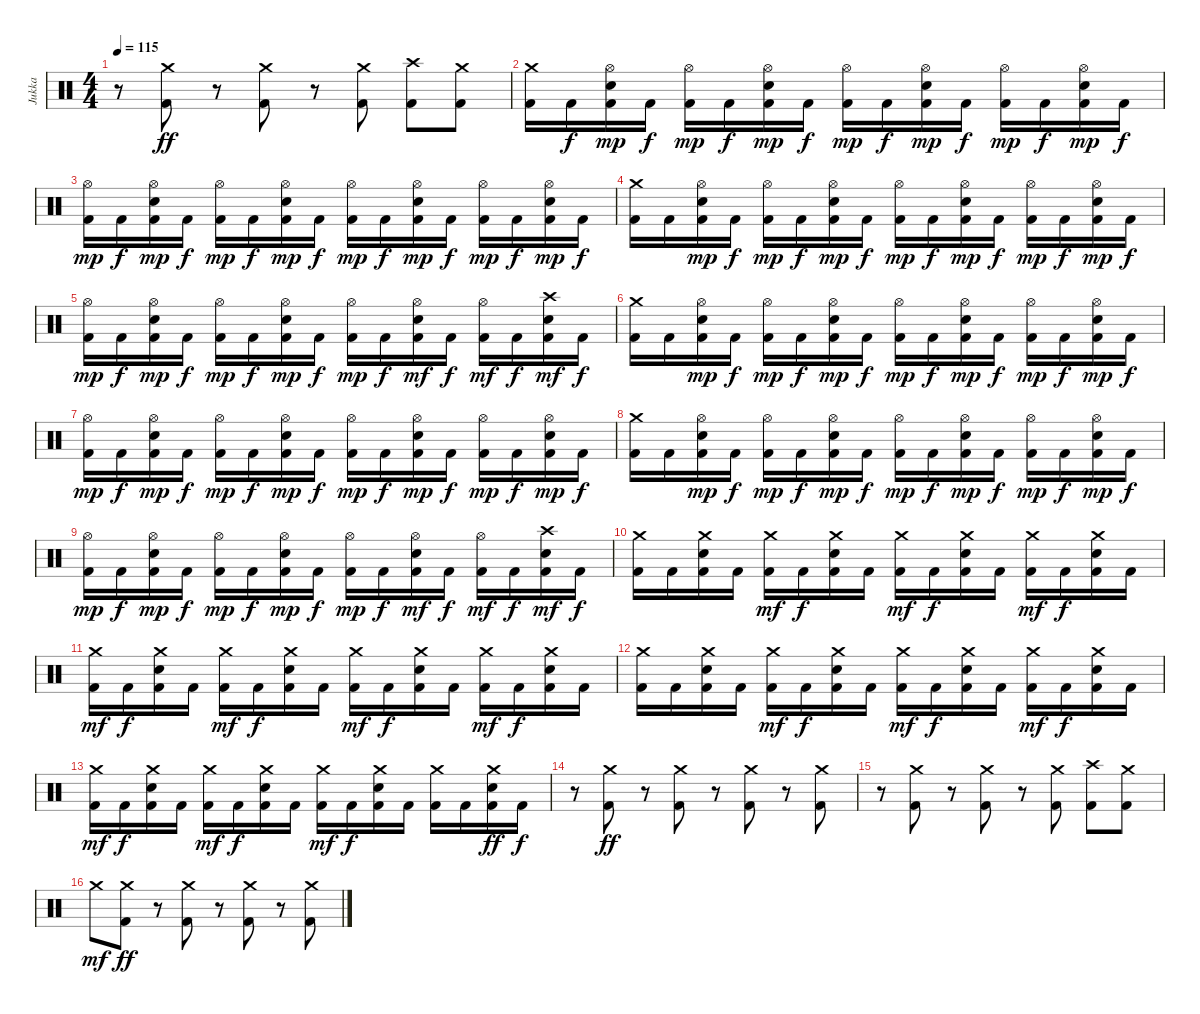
\track ("Jukka" "Jukka") {instrument percussion}
\staff {score}
\articulation defaults
\ts (4 4)
\tempo 115
\clef neutral
\ks c
r.8{dy ff} ("Crash medium (hit)" "Kick (hit) 2").8 r.8 ("Crash medium (hit)" "Kick (hit) 2").8 r.8 ("Crash medium (hit)" "Kick (hit) 2").8 ("Crash high (hit)" "Kick (hit) 2").8 ("Crash medium (hit)" "Kick (hit) 2").8 |
("Crash medium (hit)" "Kick (hit) 2").16 "Kick (hit) 2".16{dy f} ("Hi-Hat (open)" "Snare (hit) 2" "Kick (hit) 2").16{dy mp} "Kick (hit) 2".16{dy f} ("Hi-Hat (open)" "Kick (hit) 2").16{dy mp} "Kick (hit) 2".16{dy f} ("Hi-Hat (open)" "Snare (hit) 2" "Kick (hit) 2").16{dy mp} "Kick (hit) 2".16{dy f} ("Hi-Hat (open)" "Kick (hit) 2").16{dy mp} "Kick (hit) 2".16{dy f} ("Hi-Hat (open)" "Snare (hit) 2" "Kick (hit) 2").16{dy mp} "Kick (hit) 2".16{dy f} ("Hi-Hat (open)" "Kick (hit) 2").16{dy mp} "Kick (hit) 2".16{dy f} ("Hi-Hat (open)" "Snare (hit) 2" "Kick (hit) 2").16{dy mp} "Kick (hit) 2".16{dy f} |
("Hi-Hat (open)" "Kick (hit) 2").16{dy mp} "Kick (hit) 2".16{dy f} ("Hi-Hat (open)" "Snare (hit) 2" "Kick (hit) 2").16{dy mp} "Kick (hit) 2".16{dy f} ("Hi-Hat (open)" "Kick (hit) 2").16{dy mp} "Kick (hit) 2".16{dy f} ("Hi-Hat (open)" "Snare (hit) 2" "Kick (hit) 2").16{dy mp} "Kick (hit) 2".16{dy f} ("Hi-Hat (open)" "Kick (hit) 2").16{dy mp} "Kick (hit) 2".16{dy f} ("Hi-Hat (open)" "Snare (hit) 2" "Kick (hit) 2").16{dy mp} "Kick (hit) 2".16{dy f} ("Hi-Hat (open)" "Kick (hit) 2").16{dy mp} "Kick (hit) 2".16{dy f} ("Hi-Hat (open)" "Snare (hit) 2" "Kick (hit) 2").16{dy mp} "Kick (hit) 2".16{dy f} |
("Crash medium (hit)" "Kick (hit) 2").16 "Kick (hit) 2".16 ("Hi-Hat (open)" "Snare (hit) 2" "Kick (hit) 2").16{dy mp} "Kick (hit) 2".16{dy f} ("Hi-Hat (open)" "Kick (hit) 2").16{dy mp} "Kick (hit) 2".16{dy f} ("Hi-Hat (open)" "Snare (hit) 2" "Kick (hit) 2").16{dy mp} "Kick (hit) 2".16{dy f} ("Hi-Hat (open)" "Kick (hit) 2").16{dy mp} "Kick (hit) 2".16{dy f} ("Hi-Hat (open)" "Snare (hit) 2" "Kick (hit) 2").16{dy mp} "Kick (hit) 2".16{dy f} ("Hi-Hat (open)" "Kick (hit) 2").16{dy mp} "Kick (hit) 2".16{dy f} ("Hi-Hat (open)" "Snare (hit) 2" "Kick (hit) 2").16{dy mp} "Kick (hit) 2".16{dy f} |
("Hi-Hat (open)" "Kick (hit) 2").16{dy mp} "Kick (hit) 2".16{dy f} ("Hi-Hat (open)" "Snare (hit) 2" "Kick (hit) 2").16{dy mp} "Kick (hit) 2".16{dy f} ("Hi-Hat (open)" "Kick (hit) 2").16{dy mp} "Kick (hit) 2".16{dy f} ("Hi-Hat (open)" "Snare (hit) 2" "Kick (hit) 2").16{dy mp} "Kick (hit) 2".16{dy f} ("Hi-Hat (open)" "Kick (hit) 2").16{dy mp} "Kick (hit) 2".16{dy f} ("Hi-Hat (open)" "Snare (hit) 2" "Kick (hit) 2").16{dy mf} "Kick (hit) 2".16{dy f} ("Hi-Hat (open)" "Kick (hit) 2").16{dy mf} "Kick (hit) 2".16{dy f} ("Crash high (hit)" "Snare (hit) 2" "Kick (hit) 2").16{dy mf} "Kick (hit) 2".16{dy f} |
("Crash medium (hit)" "Kick (hit) 2").16 "Kick (hit) 2".16 ("Hi-Hat (open)" "Snare (hit) 2" "Kick (hit) 2").16{dy mp} "Kick (hit) 2".16{dy f} ("Hi-Hat (open)" "Kick (hit) 2").16{dy mp} "Kick (hit) 2".16{dy f} ("Hi-Hat (open)" "Snare (hit) 2" "Kick (hit) 2").16{dy mp} "Kick (hit) 2".16{dy f} ("Hi-Hat (open)" "Kick (hit) 2").16{dy mp} "Kick (hit) 2".16{dy f} ("Hi-Hat (open)" "Snare (hit) 2" "Kick (hit) 2").16{dy mp} "Kick (hit) 2".16{dy f} ("Hi-Hat (open)" "Kick (hit) 2").16{dy mp} "Kick (hit) 2".16{dy f} ("Hi-Hat (open)" "Snare (hit) 2" "Kick (hit) 2").16{dy mp} "Kick (hit) 2".16{dy f} |
("Hi-Hat (open)" "Kick (hit) 2").16{dy mp} "Kick (hit) 2".16{dy f} ("Hi-Hat (open)" "Snare (hit) 2" "Kick (hit) 2").16{dy mp} "Kick (hit) 2".16{dy f} ("Hi-Hat (open)" "Kick (hit) 2").16{dy mp} "Kick (hit) 2".16{dy f} ("Hi-Hat (open)" "Snare (hit) 2" "Kick (hit) 2").16{dy mp} "Kick (hit) 2".16{dy f} ("Hi-Hat (open)" "Kick (hit) 2").16{dy mp} "Kick (hit) 2".16{dy f} ("Hi-Hat (open)" "Snare (hit) 2" "Kick (hit) 2").16{dy mp} "Kick (hit) 2".16{dy f} ("Hi-Hat (open)" "Kick (hit) 2").16{dy mp} "Kick (hit) 2".16{dy f} ("Hi-Hat (open)" "Snare (hit) 2" "Kick (hit) 2").16{dy mp} "Kick (hit) 2".16{dy f} |
("Crash medium (hit)" "Kick (hit) 2").16 "Kick (hit) 2".16 ("Hi-Hat (open)" "Snare (hit) 2" "Kick (hit) 2").16{dy mp} "Kick (hit) 2".16{dy f} ("Hi-Hat (open)" "Kick (hit) 2").16{dy mp} "Kick (hit) 2".16{dy f} ("Hi-Hat (open)" "Snare (hit) 2" "Kick (hit) 2").16{dy mp} "Kick (hit) 2".16{dy f} ("Hi-Hat (open)" "Kick (hit) 2").16{dy mp} "Kick (hit) 2".16{dy f} ("Hi-Hat (open)" "Snare (hit) 2" "Kick (hit) 2").16{dy mp} "Kick (hit) 2".16{dy f} ("Hi-Hat (open)" "Kick (hit) 2").16{dy mp} "Kick (hit) 2".16{dy f} ("Hi-Hat (open)" "Snare (hit) 2" "Kick (hit) 2").16{dy mp} "Kick (hit) 2".16{dy f} |
("Hi-Hat (open)" "Kick (hit) 2").16{dy mp} "Kick (hit) 2".16{dy f} ("Hi-Hat (open)" "Snare (hit) 2" "Kick (hit) 2").16{dy mp} "Kick (hit) 2".16{dy f} ("Hi-Hat (open)" "Kick (hit) 2").16{dy mp} "Kick (hit) 2".16{dy f} ("Hi-Hat (open)" "Snare (hit) 2" "Kick (hit) 2").16{dy mp} "Kick (hit) 2".16{dy f} ("Hi-Hat (open)" "Kick (hit) 2").16{dy mp} "Kick (hit) 2".16{dy f} ("Hi-Hat (open)" "Snare (hit) 2" "Kick (hit) 2").16{dy mf} "Kick (hit) 2".16{dy f} ("Hi-Hat (open)" "Kick (hit) 2").16{dy mf} "Kick (hit) 2".16{dy f} ("Crash high (hit)" "Snare (hit) 2" "Kick (hit) 2").16{dy mf} "Kick (hit) 2".16{dy f} |
("Crash medium (hit)" "Kick (hit) 2").16 "Kick (hit) 2".16 ("Crash medium (hit)" "Snare (hit) 2" "Kick (hit) 2").16 "Kick (hit) 2".16 ("Crash medium (hit)" "Kick (hit) 2").16{dy mf} "Kick (hit) 2".16{dy f} ("Crash medium (hit)" "Snare (hit) 2" "Kick (hit) 2").16 "Kick (hit) 2".16 ("Crash medium (hit)" "Kick (hit) 2").16{dy mf} "Kick (hit) 2".16{dy f} ("Crash medium (hit)" "Snare (hit) 2" "Kick (hit) 2").16 "Kick (hit) 2".16 ("Crash medium (hit)" "Kick (hit) 2").16{dy mf} "Kick (hit) 2".16{dy f} ("Crash medium (hit)" "Snare (hit) 2" "Kick (hit) 2").16 "Kick (hit) 2".16 |
("Crash medium (hit)" "Kick (hit) 2").16{dy mf} "Kick (hit) 2".16{dy f} ("Crash medium (hit)" "Snare (hit) 2" "Kick (hit) 2").16 "Kick (hit) 2".16 ("Crash medium (hit)" "Kick (hit) 2").16{dy mf} "Kick (hit) 2".16{dy f} ("Crash medium (hit)" "Snare (hit) 2" "Kick (hit) 2").16 "Kick (hit) 2".16 ("Crash medium (hit)" "Kick (hit) 2").16{dy mf} "Kick (hit) 2".16{dy f} ("Crash medium (hit)" "Snare (hit) 2" "Kick (hit) 2").16 "Kick (hit) 2".16 ("Crash medium (hit)" "Kick (hit) 2").16{dy mf} "Kick (hit) 2".16{dy f} ("Crash medium (hit)" "Snare (hit) 2" "Kick (hit) 2").16 "Kick (hit) 2".16 |
("Crash medium (hit)" "Kick (hit) 2").16 "Kick (hit) 2".16 ("Crash medium (hit)" "Snare (hit) 2" "Kick (hit) 2").16 "Kick (hit) 2".16 ("Crash medium (hit)" "Kick (hit) 2").16{dy mf} "Kick (hit) 2".16{dy f} ("Crash medium (hit)" "Snare (hit) 2" "Kick (hit) 2").16 "Kick (hit) 2".16 ("Crash medium (hit)" "Kick (hit) 2").16{dy mf} "Kick (hit) 2".16{dy f} ("Crash medium (hit)" "Snare (hit) 2" "Kick (hit) 2").16 "Kick (hit) 2".16 ("Crash medium (hit)" "Kick (hit) 2").16{dy mf} "Kick (hit) 2".16{dy f} ("Crash medium (hit)" "Snare (hit) 2" "Kick (hit) 2").16 "Kick (hit) 2".16 |
("Crash medium (hit)" "Kick (hit) 2").16{dy mf} "Kick (hit) 2".16{dy f} ("Crash medium (hit)" "Snare (hit) 2" "Kick (hit) 2").16 "Kick (hit) 2".16 ("Crash medium (hit)" "Kick (hit) 2").16{dy mf} "Kick (hit) 2".16{dy f} ("Crash medium (hit)" "Snare (hit) 2" "Kick (hit) 2").16 "Kick (hit) 2".16 ("Crash medium (hit)" "Kick (hit) 2").16{dy mf} "Kick (hit) 2".16{dy f} ("Crash medium (hit)" "Snare (hit) 2" "Kick (hit) 2").16 "Kick (hit) 2".16 ("Crash medium (hit)" "Kick (hit) 2").16 "Kick (hit) 2".16 ("Crash medium (hit)" "Snare (hit) 2" "Kick (hit) 2").16{dy ff} "Kick (hit) 2".16{dy f} |
r.8 ("Crash medium (hit)" "Kick (hit) 2").8{dy ff} r.8 ("Crash medium (hit)" "Kick (hit) 2").8 r.8 ("Crash medium (hit)" "Kick (hit) 2").8 r.8 ("Crash medium (hit)" "Kick (hit) 2").8 |
r.8 ("Crash medium (hit)" "Kick (hit) 2").8 r.8 ("Crash medium (hit)" "Kick (hit) 2").8 r.8 ("Crash medium (hit)" "Kick (hit) 2").8 ("Crash high (hit)" "Kick (hit) 2").8 ("Crash medium (hit)" "Kick (hit) 2").8 |
"Crash medium (hit)".8{dy mf} ("Crash medium (hit)" "Kick (hit) 2").8{dy ff} r.8 ("Crash medium (hit)" "Kick (hit) 2").8 r.8 ("Crash medium (hit)" "Kick (hit) 2").8 r.8 ("Crash medium (hit)" "Kick (hit) 2").8
